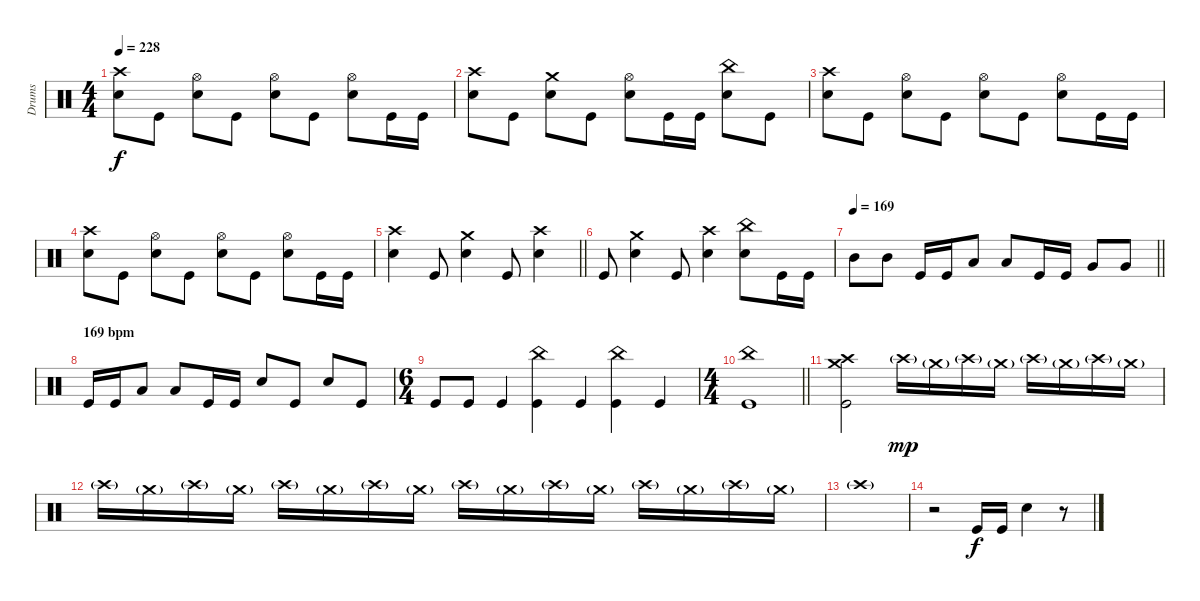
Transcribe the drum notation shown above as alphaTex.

\track ("Drums" "Drums") {instrument percussion}
\staff
\articulation defaults
\ts (4 4)
\tempo 228
\clef neutral
\ks c
("Crash high (hit)" "Electric Snare (hit)").8{dy f} "Kick (hit)".8 ("Hi-Hat (open)" "Electric Snare (hit)").8 "Kick (hit)".8 ("Hi-Hat (open)" "Electric Snare (hit)").8 "Kick (hit)".8 ("Hi-Hat (open)" "Electric Snare (hit)").8 "Kick (hit)".16 "Kick (hit)".16 |
("Crash high (hit)" "Electric Snare (hit)").8 "Kick (hit)".8 ("Crash medium (hit)" "Electric Snare (hit)").8 "Kick (hit)".8 ("Hi-Hat (open)" "Electric Snare (hit)").8 "Kick (hit)".16 "Kick (hit)".16 ("China (hit)" "Electric Snare (hit)").8 "Kick (hit)".8 |
("Crash high (hit)" "Electric Snare (hit)").8 "Kick (hit)".8 ("Hi-Hat (open)" "Electric Snare (hit)").8 "Kick (hit)".8 ("Hi-Hat (open)" "Electric Snare (hit)").8 "Kick (hit)".8 ("Hi-Hat (open)" "Electric Snare (hit)").8 "Kick (hit)".16 "Kick (hit)".16 |
("Crash high (hit)" "Electric Snare (hit)").8 "Kick (hit)".8 ("Hi-Hat (open)" "Electric Snare (hit)").8 "Kick (hit)".8 ("Hi-Hat (open)" "Electric Snare (hit)").8 "Kick (hit)".8 ("Hi-Hat (open)" "Electric Snare (hit)").8 "Kick (hit)".16 "Kick (hit)".16 |
\barLineRight lightlight
("Crash high (hit)" "Electric Snare (hit)").4 "Kick (hit)".8 ("Crash medium (hit)" "Electric Snare (hit)").4 "Kick (hit)".8 ("Crash high (hit)" "Electric Snare (hit)").4 |
"Kick (hit)".8 ("Crash medium (hit)" "Electric Snare (hit)").4 "Kick (hit)".8 ("Crash high (hit)" "Electric Snare (hit)").4 ("China (hit)" "Electric Snare (hit)").8 "Kick (hit)".16 "Kick (hit)".16 |
\tempo 169
\barLineRight lightlight "Mid Tom (hit)".8 "Mid Tom (hit)".8 "Kick (hit)".16 "Kick (hit)".16 "Low Tom (hit)".8 "Low Tom (hit)".8 "Kick (hit)".16 "Kick (hit)".16 "Very Low Tom (hit)".8 "Very Low Tom (hit)".8
|
\section ("" "169 bpm")
"Kick (hit)".16 "Kick (hit)".16 "Low Floor Tom (hit)".8 "Low Floor Tom (hit)".8 "Kick (hit)".16 "Kick (hit)".16 "Electric Snare (hit)".8 "Kick (hit)".8 "Electric Snare (hit)".8 "Kick (hit)".8 |
\ts (6 4)
"Kick (hit)".8 "Kick (hit)".8 "Kick (hit)".4 ("China (hit)" "Kick (hit)").4 "Kick (hit)".4 ("China (hit)" "Kick (hit)").4 "Kick (hit)".4 |
\ts (4 4)
\barLineRight lightlight
("China (hit)" "Kick (hit)").1 |
\section ("" "")
("Crash high (hit)" "Crash medium (hit)" "Kick (hit)").2 "Crash high (hit)"{g}.16{dy mp} "Crash medium (hit)"{g}.16 "Crash high (hit)"{g}.16 "Crash medium (hit)"{g}.16 "Crash high (hit)"{g}.16 "Crash medium (hit)"{g}.16 "Crash high (hit)"{g}.16 "Crash medium (hit)"{g}.16 |
"Crash high (hit)"{g}.16 "Crash medium (hit)"{g}.16 "Crash high (hit)"{g}.16 "Crash medium (hit)"{g}.16 "Crash high (hit)"{g}.16 "Crash medium (hit)"{g}.16 "Crash high (hit)"{g}.16 "Crash medium (hit)"{g}.16 "Crash high (hit)"{g}.16 "Crash medium (hit)"{g}.16 "Crash high (hit)"{g}.16 "Crash medium (hit)"{g}.16 "Crash high (hit)"{g}.16 "Crash medium (hit)"{g}.16 "Crash high (hit)"{g}.16 "Crash medium (hit)"{g}.16 |
"Crash high (hit)"{g}.1 |
r.2 "Kick (hit)".16{dy f} "Kick (hit)".16 "Electric Snare (hit)".4 r.8
